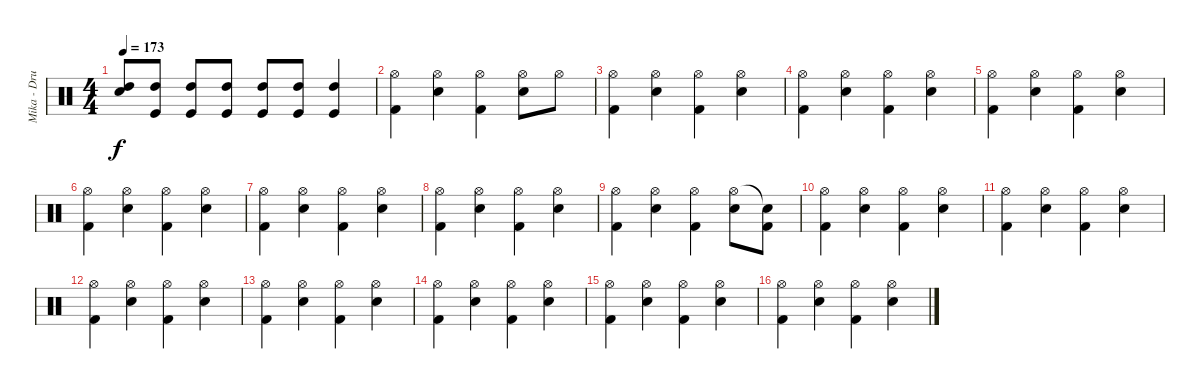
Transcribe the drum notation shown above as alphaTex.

\track ("Mika - Drums" "Mika - Dru") {instrument percussion}
\staff {score}
\articulation defaults
\ts (4 4)
\tempo 173
\clef neutral
\ks c
("Snare (hit)"{t} "High Tom (hit)"{t}).8{dy f} ("High Tom (hit)" "Kick (hit)").8 ("High Tom (hit)" "Kick (hit)").8 ("High Tom (hit)" "Kick (hit)").8 ("High Tom (hit)" "Kick (hit)").8 ("High Tom (hit)" "Kick (hit)").8 ("High Tom (hit)" "Kick (hit)").4 |
("Hi-Hat (open)" "Kick (hit) 2").4 ("Hi-Hat (open)" "Electric Snare (hit)").4 ("Hi-Hat (open)" "Kick (hit) 2").4 ("Hi-Hat (open)" "Electric Snare (hit)").8 "Hi-Hat (open)".8 |
("Hi-Hat (open)" "Kick (hit) 2").4 ("Hi-Hat (open)" "Electric Snare (hit)").4 ("Hi-Hat (open)" "Kick (hit) 2").4 ("Hi-Hat (open)" "Electric Snare (hit)").4 |
("Hi-Hat (open)" "Kick (hit) 2").4 ("Hi-Hat (open)" "Electric Snare (hit)").4 ("Hi-Hat (open)" "Kick (hit) 2").4 ("Hi-Hat (open)" "Electric Snare (hit)").4 |
("Hi-Hat (open)" "Kick (hit) 2").4 ("Hi-Hat (open)" "Electric Snare (hit)").4 ("Hi-Hat (open)" "Kick (hit) 2").4 ("Hi-Hat (open)" "Electric Snare (hit)").4 |
("Hi-Hat (open)" "Kick (hit) 2").4 ("Hi-Hat (open)" "Electric Snare (hit)").4 ("Hi-Hat (open)" "Kick (hit) 2").4 ("Hi-Hat (open)" "Electric Snare (hit)").4 |
("Hi-Hat (open)" "Kick (hit) 2").4 ("Hi-Hat (open)" "Electric Snare (hit)").4 ("Hi-Hat (open)" "Kick (hit) 2").4 ("Hi-Hat (open)" "Electric Snare (hit)").4 |
("Hi-Hat (open)" "Kick (hit) 2").4 ("Hi-Hat (open)" "Electric Snare (hit)").4 ("Hi-Hat (open)" "Kick (hit) 2").4 ("Hi-Hat (open)" "Electric Snare (hit)").4 |
("Hi-Hat (open)" "Kick (hit) 2").4 ("Hi-Hat (open)" "Electric Snare (hit)").4 ("Hi-Hat (open)" "Kick (hit) 2").4 ("Hi-Hat (open)" "Electric Snare (hit)").8 ("Snare (hit)"{t} "Kick (hit) 2").8 |
("Hi-Hat (open)" "Kick (hit) 2").4 ("Hi-Hat (open)" "Electric Snare (hit)").4 ("Hi-Hat (open)" "Kick (hit) 2").4 ("Hi-Hat (open)" "Electric Snare (hit)").4 |
("Hi-Hat (open)" "Kick (hit) 2").4 ("Hi-Hat (open)" "Electric Snare (hit)").4 ("Hi-Hat (open)" "Kick (hit) 2").4 ("Hi-Hat (open)" "Electric Snare (hit)").4 |
("Hi-Hat (open)" "Kick (hit) 2").4 ("Hi-Hat (open)" "Electric Snare (hit)").4 ("Hi-Hat (open)" "Kick (hit) 2").4 ("Hi-Hat (open)" "Electric Snare (hit)").4 |
("Hi-Hat (open)" "Kick (hit) 2").4 ("Hi-Hat (open)" "Electric Snare (hit)").4 ("Hi-Hat (open)" "Kick (hit) 2").4 ("Hi-Hat (open)" "Electric Snare (hit)").4 |
("Hi-Hat (open)" "Kick (hit) 2").4 ("Hi-Hat (open)" "Electric Snare (hit)").4 ("Hi-Hat (open)" "Kick (hit) 2").4 ("Hi-Hat (open)" "Electric Snare (hit)").4 |
("Hi-Hat (open)" "Kick (hit) 2").4 ("Hi-Hat (open)" "Electric Snare (hit)").4 ("Hi-Hat (open)" "Kick (hit) 2").4 ("Hi-Hat (open)" "Electric Snare (hit)").4 |
("Hi-Hat (open)" "Kick (hit) 2").4 ("Hi-Hat (open)" "Electric Snare (hit)").4 ("Hi-Hat (open)" "Kick (hit) 2").4 ("Hi-Hat (open)" "Electric Snare (hit)").4
